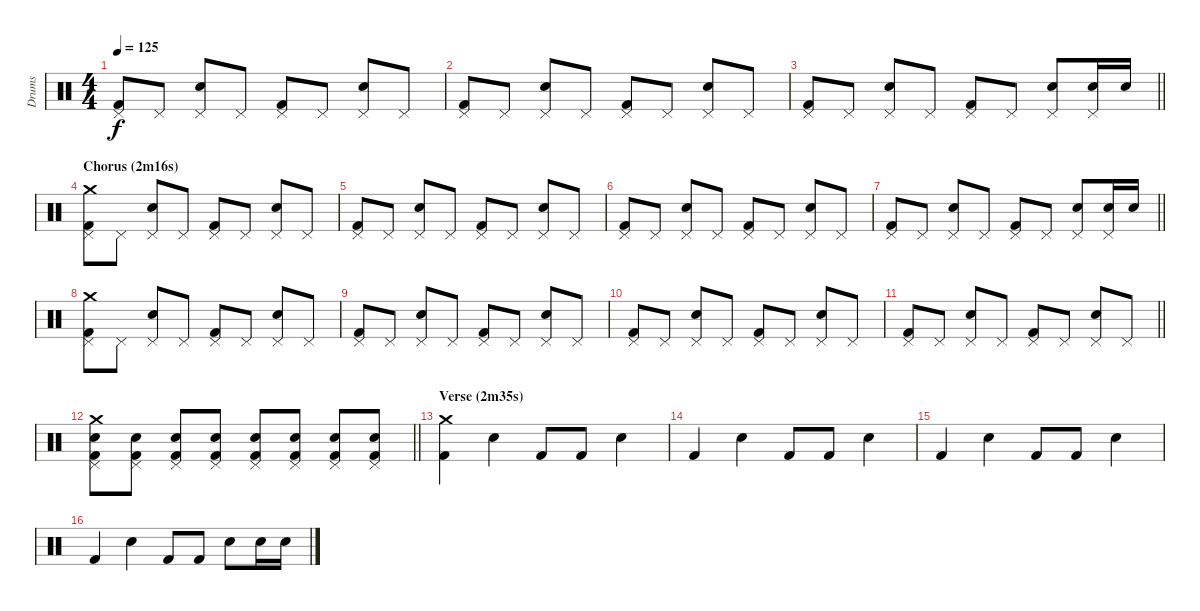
\track ("Drums" "Drums") {instrument percussion}
\staff {score}
\articulation defaults
\ts (4 4)
\tempo 125
\clef neutral
\ks c
("Pedal Hi-Hat (hit)" "Kick (hit) 2").8{dy f} "Pedal Hi-Hat (hit)".8 ("Pedal Hi-Hat (hit)" "Electric Snare (hit)").8 "Pedal Hi-Hat (hit)".8 ("Pedal Hi-Hat (hit)" "Kick (hit) 2").8 "Pedal Hi-Hat (hit)".8 ("Pedal Hi-Hat (hit)" "Electric Snare (hit)").8 "Pedal Hi-Hat (hit)".8 |
("Pedal Hi-Hat (hit)" "Kick (hit) 2").8 "Pedal Hi-Hat (hit)".8 ("Pedal Hi-Hat (hit)" "Electric Snare (hit)").8 "Pedal Hi-Hat (hit)".8 ("Pedal Hi-Hat (hit)" "Kick (hit) 2").8 "Pedal Hi-Hat (hit)".8 ("Pedal Hi-Hat (hit)" "Electric Snare (hit)").8 "Pedal Hi-Hat (hit)".8 |
\barLineRight lightlight
("Pedal Hi-Hat (hit)" "Kick (hit) 2").8 "Pedal Hi-Hat (hit)".8 ("Pedal Hi-Hat (hit)" "Electric Snare (hit)").8 "Pedal Hi-Hat (hit)".8 ("Pedal Hi-Hat (hit)" "Kick (hit) 2").8 "Pedal Hi-Hat (hit)".8 ("Pedal Hi-Hat (hit)" "Electric Snare (hit)").8 ("Pedal Hi-Hat (hit)" "Electric Snare (hit)").16 "Electric Snare (hit)".16 |
\section ("" "Chorus (2m16s)")
("Pedal Hi-Hat (hit)" "Crash medium (hit)" "Kick (hit) 2").8 "Pedal Hi-Hat (hit)".8 ("Pedal Hi-Hat (hit)" "Electric Snare (hit)").8 "Pedal Hi-Hat (hit)".8 ("Pedal Hi-Hat (hit)" "Kick (hit) 2").8 "Pedal Hi-Hat (hit)".8 ("Pedal Hi-Hat (hit)" "Electric Snare (hit)").8 "Pedal Hi-Hat (hit)".8 |
("Pedal Hi-Hat (hit)" "Kick (hit) 2").8 "Pedal Hi-Hat (hit)".8 ("Pedal Hi-Hat (hit)" "Electric Snare (hit)").8 "Pedal Hi-Hat (hit)".8 ("Pedal Hi-Hat (hit)" "Kick (hit) 2").8 "Pedal Hi-Hat (hit)".8 ("Pedal Hi-Hat (hit)" "Electric Snare (hit)").8 "Pedal Hi-Hat (hit)".8 |
("Pedal Hi-Hat (hit)" "Kick (hit) 2").8 "Pedal Hi-Hat (hit)".8 ("Pedal Hi-Hat (hit)" "Electric Snare (hit)").8 "Pedal Hi-Hat (hit)".8 ("Pedal Hi-Hat (hit)" "Kick (hit) 2").8 "Pedal Hi-Hat (hit)".8 ("Pedal Hi-Hat (hit)" "Electric Snare (hit)").8 "Pedal Hi-Hat (hit)".8 |
\barLineRight lightlight
("Pedal Hi-Hat (hit)" "Kick (hit) 2").8 "Pedal Hi-Hat (hit)".8 ("Pedal Hi-Hat (hit)" "Electric Snare (hit)").8 "Pedal Hi-Hat (hit)".8 ("Pedal Hi-Hat (hit)" "Kick (hit) 2").8 "Pedal Hi-Hat (hit)".8 ("Pedal Hi-Hat (hit)" "Electric Snare (hit)").8 ("Pedal Hi-Hat (hit)" "Electric Snare (hit)").16 "Electric Snare (hit)".16 |
("Pedal Hi-Hat (hit)" "Crash medium (hit)" "Kick (hit) 2").8 "Pedal Hi-Hat (hit)".8 ("Pedal Hi-Hat (hit)" "Electric Snare (hit)").8 "Pedal Hi-Hat (hit)".8 ("Pedal Hi-Hat (hit)" "Kick (hit) 2").8 "Pedal Hi-Hat (hit)".8 ("Pedal Hi-Hat (hit)" "Electric Snare (hit)").8 "Pedal Hi-Hat (hit)".8 |
("Pedal Hi-Hat (hit)" "Kick (hit) 2").8 "Pedal Hi-Hat (hit)".8 ("Pedal Hi-Hat (hit)" "Electric Snare (hit)").8 "Pedal Hi-Hat (hit)".8 ("Pedal Hi-Hat (hit)" "Kick (hit) 2").8 "Pedal Hi-Hat (hit)".8 ("Pedal Hi-Hat (hit)" "Electric Snare (hit)").8 "Pedal Hi-Hat (hit)".8 |
("Pedal Hi-Hat (hit)" "Kick (hit) 2").8 "Pedal Hi-Hat (hit)".8 ("Pedal Hi-Hat (hit)" "Electric Snare (hit)").8 "Pedal Hi-Hat (hit)".8 ("Pedal Hi-Hat (hit)" "Kick (hit) 2").8 "Pedal Hi-Hat (hit)".8 ("Pedal Hi-Hat (hit)" "Electric Snare (hit)").8 "Pedal Hi-Hat (hit)".8 |
\barLineRight lightlight
("Pedal Hi-Hat (hit)" "Kick (hit) 2").8 "Pedal Hi-Hat (hit)".8 ("Pedal Hi-Hat (hit)" "Electric Snare (hit)").8 "Pedal Hi-Hat (hit)".8 ("Pedal Hi-Hat (hit)" "Kick (hit) 2").8 "Pedal Hi-Hat (hit)".8 ("Pedal Hi-Hat (hit)" "Electric Snare (hit)").8 "Pedal Hi-Hat (hit)".8 |
\barLineRight lightlight
("Pedal Hi-Hat (hit)" "Crash medium (hit)" "Electric Snare (hit)" "Kick (hit) 2").8 ("Pedal Hi-Hat (hit)" "Electric Snare (hit)" "Kick (hit) 2").8 ("Pedal Hi-Hat (hit)" "Electric Snare (hit)" "Kick (hit) 2").8 ("Pedal Hi-Hat (hit)" "Electric Snare (hit)" "Kick (hit) 2").8 ("Pedal Hi-Hat (hit)" "Electric Snare (hit)" "Kick (hit) 2").8 ("Pedal Hi-Hat (hit)" "Electric Snare (hit)" "Kick (hit) 2").8 ("Pedal Hi-Hat (hit)" "Electric Snare (hit)" "Kick (hit) 2").8 ("Pedal Hi-Hat (hit)" "Electric Snare (hit)" "Kick (hit) 2").8 |
\section ("" "Verse (2m35s)")
("Crash medium (hit)" "Kick (hit) 2").4 "Electric Snare (hit)".4 "Kick (hit) 2".8 "Kick (hit) 2".8 "Electric Snare (hit)".4 |
"Kick (hit) 2".4 "Electric Snare (hit)".4 "Kick (hit) 2".8 "Kick (hit) 2".8 "Electric Snare (hit)".4 |
"Kick (hit) 2".4 "Electric Snare (hit)".4 "Kick (hit) 2".8 "Kick (hit) 2".8 "Electric Snare (hit)".4 |
"Kick (hit) 2".4 "Electric Snare (hit)".4 "Kick (hit) 2".8 "Kick (hit) 2".8 "Electric Snare (hit)".8 "Electric Snare (hit)".16 "Electric Snare (hit)".16
